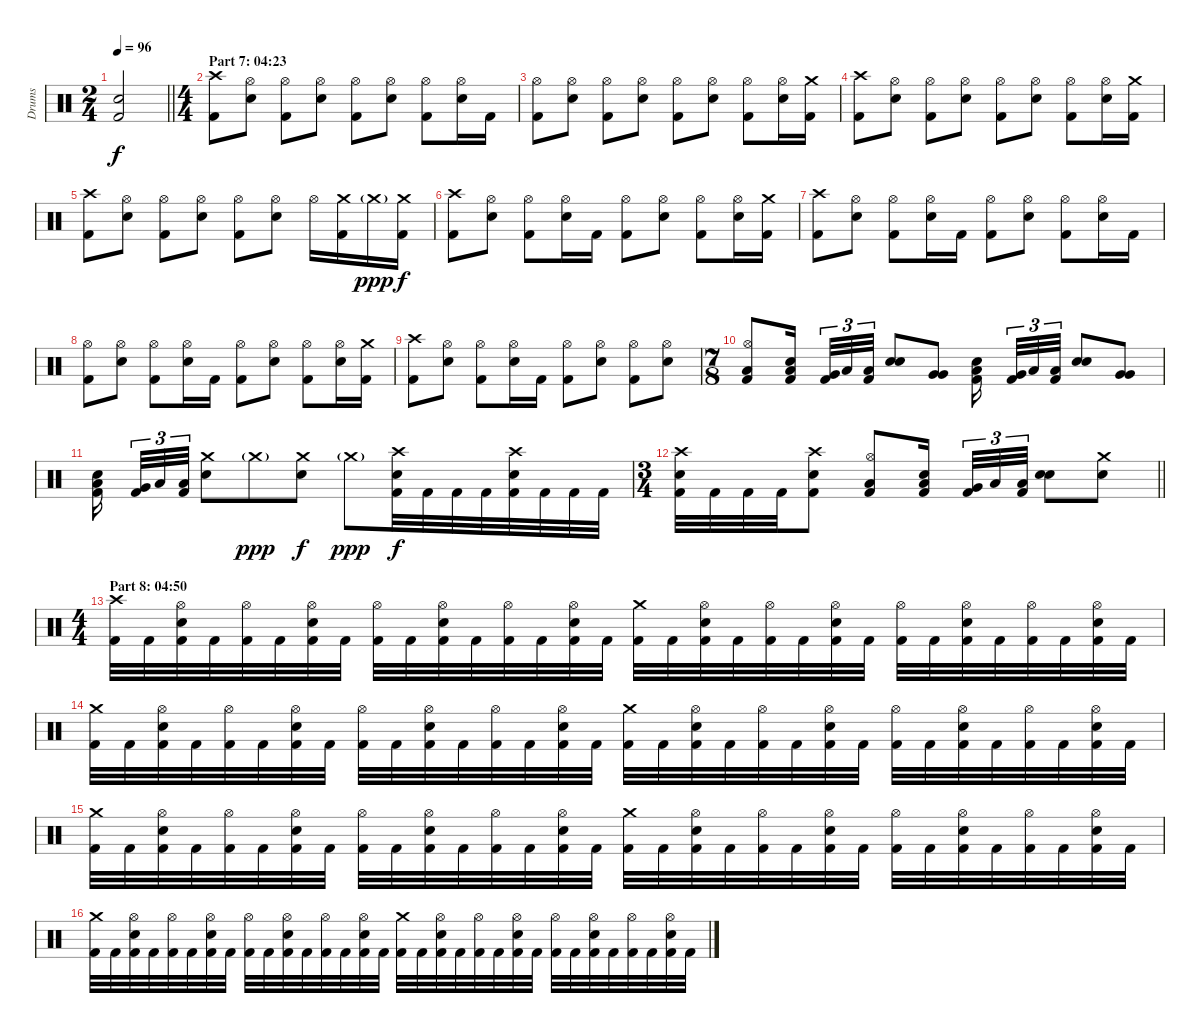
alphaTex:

\track ("Drums" "Drums") {instrument percussion}
\staff {score}
\articulation defaults
\ts (2 4)
\tempo 96
\clef neutral
\barLineRight lightlight
\ks c
("Electric Snare (hit)" "Kick (hit) 2").2{dy f} |
\ts (4 4)
\section ("" "Part 7: 04:23")
("Crash high (hit)" "Kick (hit) 2").8 ("Hi-Hat (open)" "Electric Snare (hit)").8 ("Hi-Hat (open)" "Kick (hit) 2").8 ("Hi-Hat (open)" "Electric Snare (hit)").8 ("Hi-Hat (open)" "Kick (hit) 2").8 ("Hi-Hat (open)" "Electric Snare (hit)").8 ("Hi-Hat (open)" "Kick (hit) 2").8 ("Hi-Hat (open)" "Electric Snare (hit)").16 "Kick (hit) 2".16 |
("Hi-Hat (open)" "Kick (hit) 2").8 ("Hi-Hat (open)" "Electric Snare (hit)").8 ("Hi-Hat (open)" "Kick (hit) 2").8 ("Hi-Hat (open)" "Electric Snare (hit)").8 ("Hi-Hat (open)" "Kick (hit) 2").8 ("Hi-Hat (open)" "Electric Snare (hit)").8 ("Hi-Hat (open)" "Kick (hit) 2").8 ("Hi-Hat (open)" "Electric Snare (hit)").16 ("Crash medium (hit)" "Kick (hit) 2").16 |
("Crash high (hit)" "Kick (hit) 2").8 ("Hi-Hat (open)" "Electric Snare (hit)").8 ("Hi-Hat (open)" "Kick (hit) 2").8 ("Hi-Hat (open)" "Electric Snare (hit)").8 ("Hi-Hat (open)" "Kick (hit) 2").8 ("Hi-Hat (open)" "Electric Snare (hit)").8 ("Hi-Hat (open)" "Kick (hit) 2").8 ("Hi-Hat (open)" "Electric Snare (hit)").16 ("Crash medium (hit)" "Kick (hit) 2").16 |
("Crash high (hit)" "Kick (hit) 2").8 ("Hi-Hat (open)" "Electric Snare (hit)").8 ("Hi-Hat (open)" "Kick (hit) 2").8 ("Hi-Hat (open)" "Electric Snare (hit)").8 ("Hi-Hat (open)" "Kick (hit) 2").8 ("Hi-Hat (open)" "Electric Snare (hit)").8 "Hi-Hat (open)".16 ("Crash medium (hit)" "Kick (hit) 2").16 "Crash medium (hit)"{g}.16{dy ppp} ("Crash medium (hit)" "Kick (hit) 2").16{dy f} |
("Crash high (hit)" "Kick (hit) 2").8 ("Hi-Hat (open)" "Electric Snare (hit)").8 ("Hi-Hat (open)" "Kick (hit) 2").8 ("Hi-Hat (open)" "Electric Snare (hit)").16 "Kick (hit) 2".16 ("Hi-Hat (open)" "Kick (hit) 2").8 ("Hi-Hat (open)" "Electric Snare (hit)").8 ("Hi-Hat (open)" "Kick (hit) 2").8 ("Hi-Hat (open)" "Electric Snare (hit)").16 ("Crash medium (hit)" "Kick (hit) 2").16 |
("Crash high (hit)" "Kick (hit) 2").8 ("Hi-Hat (open)" "Electric Snare (hit)").8 ("Hi-Hat (open)" "Kick (hit) 2").8 ("Hi-Hat (open)" "Electric Snare (hit)").16 "Kick (hit) 2".16 ("Hi-Hat (open)" "Kick (hit) 2").8 ("Hi-Hat (open)" "Electric Snare (hit)").8 ("Hi-Hat (open)" "Kick (hit) 2").8 ("Hi-Hat (open)" "Electric Snare (hit)").16 "Kick (hit) 2".16 |
("Hi-Hat (open)" "Kick (hit) 2").8 ("Hi-Hat (open)" "Electric Snare (hit)").8 ("Hi-Hat (open)" "Kick (hit) 2").8 ("Hi-Hat (open)" "Electric Snare (hit)").16 "Kick (hit) 2".16 ("Hi-Hat (open)" "Kick (hit) 2").8 ("Hi-Hat (open)" "Electric Snare (hit)").8 ("Hi-Hat (open)" "Kick (hit) 2").8 ("Hi-Hat (open)" "Electric Snare (hit)").16 ("Crash medium (hit)" "Kick (hit) 2").16 |
("Crash high (hit)" "Kick (hit) 2").8 ("Hi-Hat (open)" "Electric Snare (hit)").8 ("Hi-Hat (open)" "Kick (hit) 2").8 ("Hi-Hat (open)" "Electric Snare (hit)").16 "Kick (hit) 2".16 ("Hi-Hat (open)" "Kick (hit) 2").8 ("Hi-Hat (open)" "Electric Snare (hit)").8 ("Hi-Hat (open)" "Kick (hit) 2").8 ("Hi-Hat (open)" "Electric Snare (hit)").8 |
\ts (7 8)
("Hi-Hat (open)" "Low Floor Tom (hit)" "Kick (hit) 2").8 ("Low Tom (hit)" "Electric Snare (hit)" "Kick (hit) 2").16{bd 30 beam splitsecondary} ("Very Low Tom (hit)" "Kick (hit) 2").32{tu (3 2) bd 30} "Low Floor Tom (hit)".32{tu (3 2)} ("Low Floor Tom (hit)" "Kick (hit) 2").32{tu (3 2)} ("Electric Snare (hit)" "Electric Snare (hit)").8{bd 30} ("Very Low Tom (hit)" "Very Low Tom (hit)").8{bd 30} ("Low Tom (hit)" "Electric Snare (hit)" "Kick (hit) 2").16{bd 30 beam splitsecondary} ("Very Low Tom (hit)" "Kick (hit) 2").32{tu (3 2) bd 30} "Low Floor Tom (hit)".32{tu (3 2)} ("Low Floor Tom (hit)" "Kick (hit) 2").32{tu (3 2)} ("Electric Snare (hit)" "Electric Snare (hit)").8{bd 30} ("Very Low Tom (hit)" "Very Low Tom (hit)").8{bd 30} |
("Low Tom (hit)" "Electric Snare (hit)" "Kick (hit) 2").16{bd 30 beam splitsecondary} ("Very Low Tom (hit)" "Kick (hit) 2").32{tu (3 2) bd 30} "Low Floor Tom (hit)".32{tu (3 2)} ("Low Floor Tom (hit)" "Kick (hit) 2").32{tu (3 2)} ("Crash medium (hit)" "Electric Snare (hit)").8 "Crash medium (hit)"{g}.8{dy ppp} ("Crash medium (hit)" "Electric Snare (hit)").8{dy f} "Crash medium (hit)"{g}.8{dy ppp} ("Crash high (hit)" "Electric Snare (hit)" "Kick (hit) 2").32{dy f} "Kick (hit) 2".32 "Kick (hit) 2".32 "Kick (hit) 2".32 ("Crash high (hit)" "Electric Snare (hit)" "Kick (hit) 2").32 "Kick (hit) 2".32 "Kick (hit) 2".32 "Kick (hit) 2".32 |
\ts (3 4)
\barLineRight lightlight
("Crash high (hit)" "Electric Snare (hit)" "Kick (hit) 2").32 "Kick (hit) 2".32 "Kick (hit) 2".32 "Kick (hit) 2".32 ("Crash high (hit)" "Electric Snare (hit)" "Kick (hit) 2").8 ("Hi-Hat (open)" "Low Floor Tom (hit)" "Kick (hit) 2").8 ("Low Tom (hit)" "Electric Snare (hit)" "Kick (hit) 2").16{bd 30 beam splitsecondary} ("Very Low Tom (hit)" "Kick (hit) 2").32{tu (3 2) bd 30} "Low Floor Tom (hit)".32{tu (3 2)} ("Low Floor Tom (hit)" "Kick (hit) 2").32{tu (3 2)} ("Electric Snare (hit)" "Electric Snare (hit)").8{bd 30} ("Crash medium (hit)" "Electric Snare (hit)").8 |
\ts (4 4)
\section ("" "Part 8: 04:50")
("Crash high (hit)" "Kick (hit) 2").32 "Kick (hit) 2".32 ("Hi-Hat (open)" "Electric Snare (hit)" "Kick (hit) 2").32 "Kick (hit) 2".32 ("Hi-Hat (open)" "Kick (hit) 2").32 "Kick (hit) 2".32 ("Hi-Hat (open)" "Electric Snare (hit)" "Kick (hit) 2").32 "Kick (hit) 2".32 ("Hi-Hat (open)" "Kick (hit) 2").32 "Kick (hit) 2".32 ("Hi-Hat (open)" "Electric Snare (hit)" "Kick (hit) 2").32 "Kick (hit) 2".32 ("Hi-Hat (open)" "Kick (hit) 2").32 "Kick (hit) 2".32 ("Hi-Hat (open)" "Electric Snare (hit)" "Kick (hit) 2").32 "Kick (hit) 2".32 ("Crash medium (hit)" "Kick (hit) 2").32 "Kick (hit) 2".32 ("Hi-Hat (open)" "Electric Snare (hit)" "Kick (hit) 2").32 "Kick (hit) 2".32 ("Hi-Hat (open)" "Kick (hit) 2").32 "Kick (hit) 2".32 ("Hi-Hat (open)" "Electric Snare (hit)" "Kick (hit) 2").32 "Kick (hit) 2".32 ("Hi-Hat (open)" "Kick (hit) 2").32 "Kick (hit) 2".32 ("Hi-Hat (open)" "Electric Snare (hit)" "Kick (hit) 2").32 "Kick (hit) 2".32 ("Hi-Hat (open)" "Kick (hit) 2").32 "Kick (hit) 2".32 ("Hi-Hat (open)" "Electric Snare (hit)" "Kick (hit) 2").32 "Kick (hit) 2".32 |
("Crash medium (hit)" "Kick (hit) 2").32 "Kick (hit) 2".32 ("Hi-Hat (open)" "Electric Snare (hit)" "Kick (hit) 2").32 "Kick (hit) 2".32 ("Hi-Hat (open)" "Kick (hit) 2").32 "Kick (hit) 2".32 ("Hi-Hat (open)" "Electric Snare (hit)" "Kick (hit) 2").32 "Kick (hit) 2".32 ("Hi-Hat (open)" "Kick (hit) 2").32 "Kick (hit) 2".32 ("Hi-Hat (open)" "Electric Snare (hit)" "Kick (hit) 2").32 "Kick (hit) 2".32 ("Hi-Hat (open)" "Kick (hit) 2").32 "Kick (hit) 2".32 ("Hi-Hat (open)" "Electric Snare (hit)" "Kick (hit) 2").32 "Kick (hit) 2".32 ("Crash medium (hit)" "Kick (hit) 2").32 "Kick (hit) 2".32 ("Hi-Hat (open)" "Electric Snare (hit)" "Kick (hit) 2").32 "Kick (hit) 2".32 ("Hi-Hat (open)" "Kick (hit) 2").32 "Kick (hit) 2".32 ("Hi-Hat (open)" "Electric Snare (hit)" "Kick (hit) 2").32 "Kick (hit) 2".32 ("Hi-Hat (open)" "Kick (hit) 2").32 "Kick (hit) 2".32 ("Hi-Hat (open)" "Electric Snare (hit)" "Kick (hit) 2").32 "Kick (hit) 2".32 ("Hi-Hat (open)" "Kick (hit) 2").32 "Kick (hit) 2".32 ("Hi-Hat (open)" "Electric Snare (hit)" "Kick (hit) 2").32 "Kick (hit) 2".32 |
("Crash medium (hit)" "Kick (hit) 2").32 "Kick (hit) 2".32 ("Hi-Hat (open)" "Electric Snare (hit)" "Kick (hit) 2").32 "Kick (hit) 2".32 ("Hi-Hat (open)" "Kick (hit) 2").32 "Kick (hit) 2".32 ("Hi-Hat (open)" "Electric Snare (hit)" "Kick (hit) 2").32 "Kick (hit) 2".32 ("Hi-Hat (open)" "Kick (hit) 2").32 "Kick (hit) 2".32 ("Hi-Hat (open)" "Electric Snare (hit)" "Kick (hit) 2").32 "Kick (hit) 2".32 ("Hi-Hat (open)" "Kick (hit) 2").32 "Kick (hit) 2".32 ("Hi-Hat (open)" "Electric Snare (hit)" "Kick (hit) 2").32 "Kick (hit) 2".32 ("Crash medium (hit)" "Kick (hit) 2").32 "Kick (hit) 2".32 ("Hi-Hat (open)" "Electric Snare (hit)" "Kick (hit) 2").32 "Kick (hit) 2".32 ("Hi-Hat (open)" "Kick (hit) 2").32 "Kick (hit) 2".32 ("Hi-Hat (open)" "Electric Snare (hit)" "Kick (hit) 2").32 "Kick (hit) 2".32 ("Hi-Hat (open)" "Kick (hit) 2").32 "Kick (hit) 2".32 ("Hi-Hat (open)" "Electric Snare (hit)" "Kick (hit) 2").32 "Kick (hit) 2".32 ("Hi-Hat (open)" "Kick (hit) 2").32 "Kick (hit) 2".32 ("Hi-Hat (open)" "Electric Snare (hit)" "Kick (hit) 2").32 "Kick (hit) 2".32 |
("Crash medium (hit)" "Kick (hit) 2").32 "Kick (hit) 2".32 ("Hi-Hat (open)" "Electric Snare (hit)" "Kick (hit) 2").32 "Kick (hit) 2".32 ("Hi-Hat (open)" "Kick (hit) 2").32 "Kick (hit) 2".32 ("Hi-Hat (open)" "Electric Snare (hit)" "Kick (hit) 2").32 "Kick (hit) 2".32 ("Hi-Hat (open)" "Kick (hit) 2").32 "Kick (hit) 2".32 ("Hi-Hat (open)" "Electric Snare (hit)" "Kick (hit) 2").32 "Kick (hit) 2".32 ("Hi-Hat (open)" "Kick (hit) 2").32 "Kick (hit) 2".32 ("Hi-Hat (open)" "Electric Snare (hit)" "Kick (hit) 2").32 "Kick (hit) 2".32 ("Crash medium (hit)" "Kick (hit) 2").32 "Kick (hit) 2".32 ("Hi-Hat (open)" "Electric Snare (hit)" "Kick (hit) 2").32 "Kick (hit) 2".32 ("Hi-Hat (open)" "Kick (hit) 2").32 "Kick (hit) 2".32 ("Hi-Hat (open)" "Electric Snare (hit)" "Kick (hit) 2").32 "Kick (hit) 2".32 ("Hi-Hat (open)" "Kick (hit) 2").32 "Kick (hit) 2".32 ("Hi-Hat (open)" "Electric Snare (hit)" "Kick (hit) 2").32 "Kick (hit) 2".32 ("Hi-Hat (open)" "Kick (hit) 2").32 "Kick (hit) 2".32 ("Hi-Hat (open)" "Electric Snare (hit)" "Kick (hit) 2").32 "Kick (hit) 2".32
